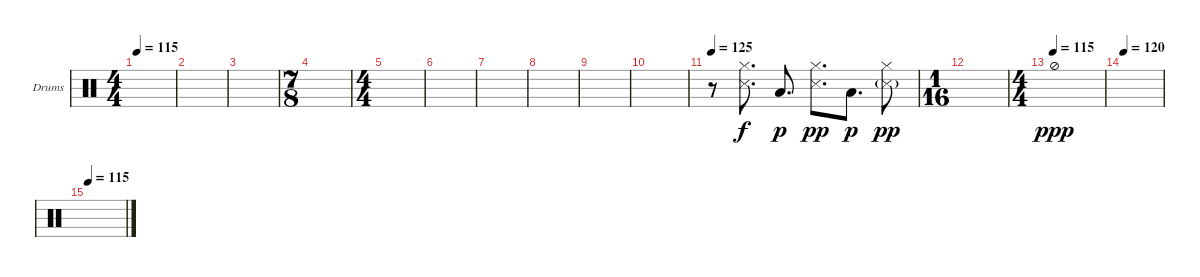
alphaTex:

\defaultSystemsLayout 4
\bracketExtendMode groupsimilarinstruments
\firstSystemTrackNameOrientation horizontal
\otherSystemsTrackNameOrientation horizontal
\track ("Drumkit" "Drums") {instrument percussion}
\staff {score}
\articulation defaults
\ts (4 4)
\tempo 115
\clef neutral
\ks c
|
|
|
\ts (7 8)
|
\ts (4 4)
|
|
|
|
|
|
\tempo 125
r.8 ("Snare (side stick) 3" "Hi-Hat (closed)").8{d} "Low Tom (hit)".8{d dy p} ("Snare (side stick) 3" "Hi-Hat (closed)").8{d dy pp} "Low Tom (hit)".8{d dy p} ("Snare (side stick) 3"{g} "Hi-Hat (closed)").8{dy pp} |
\ts (1 16)
|
\ts (4 4)
\tempo (115)
"Hi-Hat (half)".1{dy ppp} |
\tempo 120
|
\tempo 115
